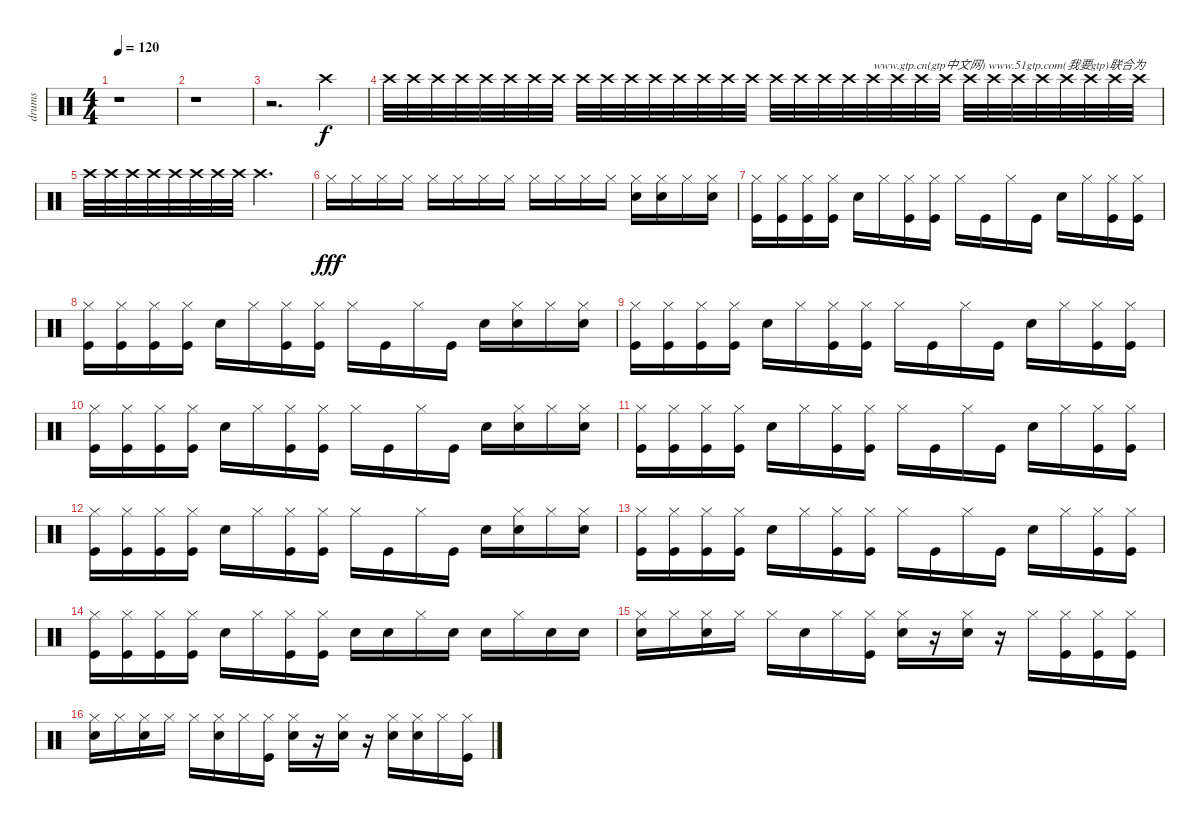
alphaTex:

\track ("drums" "drums") {instrument percussion}
\staff {score}
\articulation defaults
\ts (4 4)
\tempo 120
\clef neutral
\ks c
r.1{dy f} |
r.1 |
r.2{d} "Crash high (hit)".4 |
"Crash high (hit)".32 "Crash high (hit)".32 "Crash high (hit)".32 "Crash high (hit)".32 "Crash high (hit)".32 "Crash high (hit)".32 "Crash high (hit)".32 "Crash high (hit)".32 "Crash high (hit)".32{volume 14} "Crash high (hit)".32 "Crash high (hit)".32 "Crash high (hit)".32 "Crash high (hit)".32 "Crash high (hit)".32 "Crash high (hit)".32 "Crash high (hit)".32 "Crash high (hit)".32{volume 12} "Crash high (hit)".32 "Crash high (hit)".32 "Crash high (hit)".32 "Crash high (hit)".32{txt "www.gtp.cn(gtp中文网) www.51gtp.com(我要gtp)联合为"} "Crash high (hit)".32 "Crash high (hit)".32 "Crash high (hit)".32 "Crash high (hit)".32{volume 11} "Crash high (hit)".32 "Crash high (hit)".32 "Crash high (hit)".32 "Crash high (hit)".32 "Crash high (hit)".32 "Crash high (hit)".32 "Crash high (hit)".32 |
"Crash high (hit)".32{volume 10} "Crash high (hit)".32 "Crash high (hit)".32 "Crash high (hit)".32 "Crash high (hit)".32 "Crash high (hit)".32 "Crash high (hit)".32 "Crash high (hit)".32 "Crash high (hit)".2{d} |
"Hi-Hat (closed)".16{dy fff} "Hi-Hat (closed)".16 "Hi-Hat (closed)".16 "Hi-Hat (closed)".16 "Hi-Hat (closed)".16 "Hi-Hat (closed)".16 "Hi-Hat (closed)".16 "Hi-Hat (closed)".16 "Hi-Hat (closed)".16 "Hi-Hat (closed)".16 "Hi-Hat (closed)".16 "Hi-Hat (closed)".16 ("Snare (hit) 2" "Hi-Hat (closed)").16 ("Snare (hit) 2" "Hi-Hat (closed)").16 "Hi-Hat (closed)".16 ("Snare (hit) 2" "Hi-Hat (closed)").16 |
("Kick (hit)" "Hi-Hat (closed)").16 ("Kick (hit)" "Hi-Hat (closed)").16 ("Kick (hit)" "Hi-Hat (closed)").16 ("Kick (hit)" "Hi-Hat (closed)").16 "Snare (hit) 2".16 "Hi-Hat (closed)".16 ("Kick (hit)" "Hi-Hat (closed)").16 ("Kick (hit)" "Hi-Hat (closed)").16 "Hi-Hat (closed)".16 "Kick (hit)".16 "Hi-Hat (closed)".16 "Kick (hit)".16 "Snare (hit) 2".16 "Hi-Hat (closed)".16 ("Kick (hit)" "Hi-Hat (closed)").16 ("Kick (hit)" "Hi-Hat (closed)").16 |
("Kick (hit)" "Hi-Hat (closed)").16 ("Kick (hit)" "Hi-Hat (closed)").16 ("Kick (hit)" "Hi-Hat (closed)").16 ("Kick (hit)" "Hi-Hat (closed)").16 "Snare (hit) 2".16 "Hi-Hat (closed)".16 ("Kick (hit)" "Hi-Hat (closed)").16 ("Kick (hit)" "Hi-Hat (closed)").16 "Hi-Hat (closed)".16 "Kick (hit)".16 "Hi-Hat (closed)".16 "Kick (hit)".16 "Snare (hit) 2".16 ("Snare (hit) 2" "Hi-Hat (closed)").16 "Hi-Hat (closed)".16 ("Snare (hit) 2" "Hi-Hat (closed)").16 |
("Kick (hit)" "Hi-Hat (closed)").16 ("Kick (hit)" "Hi-Hat (closed)").16 ("Kick (hit)" "Hi-Hat (closed)").16 ("Kick (hit)" "Hi-Hat (closed)").16 "Snare (hit) 2".16 "Hi-Hat (closed)".16 ("Kick (hit)" "Hi-Hat (closed)").16 ("Kick (hit)" "Hi-Hat (closed)").16 "Hi-Hat (closed)".16 "Kick (hit)".16 "Hi-Hat (closed)".16 "Kick (hit)".16 "Snare (hit) 2".16 "Hi-Hat (closed)".16 ("Kick (hit)" "Hi-Hat (closed)").16 ("Kick (hit)" "Hi-Hat (closed)").16 |
("Kick (hit)" "Hi-Hat (closed)").16 ("Kick (hit)" "Hi-Hat (closed)").16 ("Kick (hit)" "Hi-Hat (closed)").16 ("Kick (hit)" "Hi-Hat (closed)").16 "Snare (hit) 2".16 "Hi-Hat (closed)".16 ("Kick (hit)" "Hi-Hat (closed)").16 ("Kick (hit)" "Hi-Hat (closed)").16 "Hi-Hat (closed)".16 "Kick (hit)".16 "Hi-Hat (closed)".16 "Kick (hit)".16 "Snare (hit) 2".16 ("Snare (hit) 2" "Hi-Hat (closed)").16 "Hi-Hat (closed)".16 ("Snare (hit) 2" "Hi-Hat (closed)").16 |
("Kick (hit)" "Hi-Hat (closed)").16 ("Kick (hit)" "Hi-Hat (closed)").16 ("Kick (hit)" "Hi-Hat (closed)").16 ("Kick (hit)" "Hi-Hat (closed)").16 "Snare (hit) 2".16 "Hi-Hat (closed)".16 ("Kick (hit)" "Hi-Hat (closed)").16 ("Kick (hit)" "Hi-Hat (closed)").16 "Hi-Hat (closed)".16 "Kick (hit)".16 "Hi-Hat (closed)".16 "Kick (hit)".16 "Snare (hit) 2".16 "Hi-Hat (closed)".16 ("Kick (hit)" "Hi-Hat (closed)").16 ("Kick (hit)" "Hi-Hat (closed)").16 |
("Kick (hit)" "Hi-Hat (closed)").16 ("Kick (hit)" "Hi-Hat (closed)").16 ("Kick (hit)" "Hi-Hat (closed)").16 ("Kick (hit)" "Hi-Hat (closed)").16 "Snare (hit) 2".16 "Hi-Hat (closed)".16 ("Kick (hit)" "Hi-Hat (closed)").16 ("Kick (hit)" "Hi-Hat (closed)").16 "Hi-Hat (closed)".16 "Kick (hit)".16 "Hi-Hat (closed)".16 "Kick (hit)".16 "Snare (hit) 2".16 ("Snare (hit) 2" "Hi-Hat (closed)").16 "Hi-Hat (closed)".16 ("Snare (hit) 2" "Hi-Hat (closed)").16 |
("Kick (hit)" "Hi-Hat (closed)").16 ("Kick (hit)" "Hi-Hat (closed)").16 ("Kick (hit)" "Hi-Hat (closed)").16 ("Kick (hit)" "Hi-Hat (closed)").16 "Snare (hit) 2".16 "Hi-Hat (closed)".16 ("Kick (hit)" "Hi-Hat (closed)").16 ("Kick (hit)" "Hi-Hat (closed)").16 "Hi-Hat (closed)".16 "Kick (hit)".16 "Hi-Hat (closed)".16 "Kick (hit)".16 "Snare (hit) 2".16 "Hi-Hat (closed)".16 ("Kick (hit)" "Hi-Hat (closed)").16 ("Kick (hit)" "Hi-Hat (closed)").16 |
("Kick (hit)" "Hi-Hat (closed)").16 ("Kick (hit)" "Hi-Hat (closed)").16 ("Kick (hit)" "Hi-Hat (closed)").16 ("Kick (hit)" "Hi-Hat (closed)").16 "Snare (hit) 2".16 "Hi-Hat (closed)".16 ("Kick (hit)" "Hi-Hat (closed)").16 ("Kick (hit)" "Hi-Hat (closed)").16 "Snare (hit) 2".16 "Snare (hit) 2".16 "Hi-Hat (closed)".16 "Snare (hit) 2".16 "Snare (hit) 2".16 "Hi-Hat (closed)".16 "Snare (hit) 2".16 "Snare (hit) 2".16 |
("Snare (hit) 2" "Hi-Hat (closed)").16 "Hi-Hat (closed)".16 ("Snare (hit) 2" "Hi-Hat (closed)").16 "Hi-Hat (closed)".16 "Hi-Hat (closed)".16 "Snare (hit) 2".16 "Hi-Hat (closed)".16 ("Kick (hit)" "Hi-Hat (closed)").16 ("Snare (hit) 2" "Hi-Hat (closed)").16 r.16 ("Snare (hit) 2" "Hi-Hat (closed)").16 r.16 "Hi-Hat (closed)".16 ("Kick (hit)" "Hi-Hat (closed)").16 ("Kick (hit)" "Hi-Hat (closed)").16 ("Kick (hit)" "Hi-Hat (closed)").16 |
("Snare (hit) 2" "Hi-Hat (closed)").16 "Hi-Hat (closed)".16 ("Snare (hit) 2" "Hi-Hat (closed)").16 "Hi-Hat (closed)".16 "Hi-Hat (closed)".16 ("Snare (hit) 2" "Hi-Hat (closed)").16 "Hi-Hat (closed)".16 ("Kick (hit)" "Hi-Hat (closed)").16 ("Snare (hit) 2" "Hi-Hat (closed)").16 r.16 ("Snare (hit) 2" "Hi-Hat (closed)").16 r.16 ("Snare (hit) 2" "Hi-Hat (closed)").16 ("Snare (hit) 2" "Hi-Hat (closed)").16 "Hi-Hat (closed)".16 ("Kick (hit)" "Hi-Hat (closed)").16
